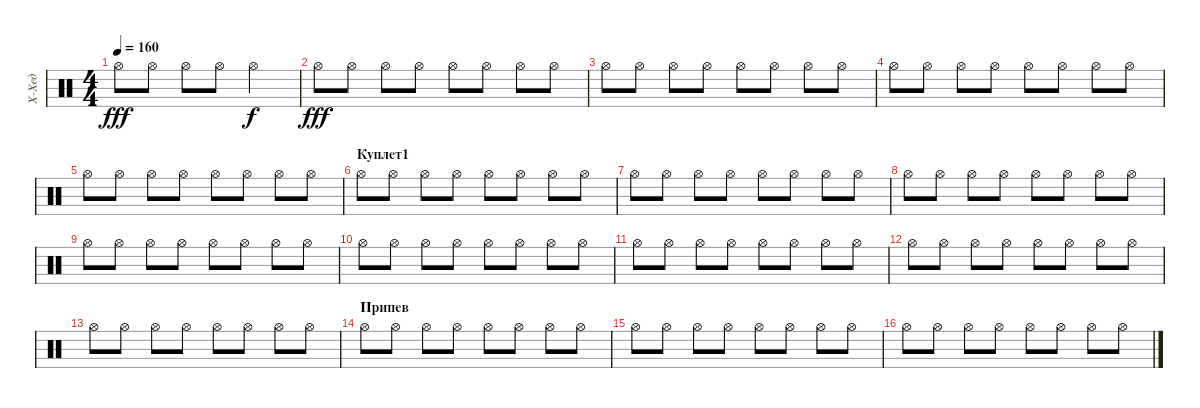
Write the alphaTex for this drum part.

\track ("Х-Хед" "Х-Хед") {instrument percussion}
\staff {score}
\articulation defaults
\ts (4 4)
\tempo 160
\clef neutral
\ks c "Hi-Hat (open)".8{dy fff} "Hi-Hat (open)".8 "Hi-Hat (open)".8 "Hi-Hat (open)".8 "Hi-Hat (open)".2{dy f}
|
"Hi-Hat (open)".8{dy fff} "Hi-Hat (open)".8 "Hi-Hat (open)".8 "Hi-Hat (open)".8 "Hi-Hat (open)".8 "Hi-Hat (open)".8 "Hi-Hat (open)".8 "Hi-Hat (open)".8 |
"Hi-Hat (open)".8 "Hi-Hat (open)".8 "Hi-Hat (open)".8 "Hi-Hat (open)".8 "Hi-Hat (open)".8 "Hi-Hat (open)".8 "Hi-Hat (open)".8 "Hi-Hat (open)".8 |
"Hi-Hat (open)".8 "Hi-Hat (open)".8 "Hi-Hat (open)".8 "Hi-Hat (open)".8 "Hi-Hat (open)".8 "Hi-Hat (open)".8 "Hi-Hat (open)".8 "Hi-Hat (open)".8 |
"Hi-Hat (open)".8 "Hi-Hat (open)".8 "Hi-Hat (open)".8 "Hi-Hat (open)".8 "Hi-Hat (open)".8 "Hi-Hat (open)".8 "Hi-Hat (open)".8 "Hi-Hat (open)".8 |
\section ("" "Куплет1")
"Hi-Hat (open)".8 "Hi-Hat (open)".8 "Hi-Hat (open)".8 "Hi-Hat (open)".8 "Hi-Hat (open)".8 "Hi-Hat (open)".8 "Hi-Hat (open)".8 "Hi-Hat (open)".8 |
"Hi-Hat (open)".8 "Hi-Hat (open)".8 "Hi-Hat (open)".8 "Hi-Hat (open)".8 "Hi-Hat (open)".8 "Hi-Hat (open)".8 "Hi-Hat (open)".8 "Hi-Hat (open)".8 |
"Hi-Hat (open)".8 "Hi-Hat (open)".8 "Hi-Hat (open)".8 "Hi-Hat (open)".8 "Hi-Hat (open)".8 "Hi-Hat (open)".8 "Hi-Hat (open)".8 "Hi-Hat (open)".8 |
"Hi-Hat (open)".8 "Hi-Hat (open)".8 "Hi-Hat (open)".8 "Hi-Hat (open)".8 "Hi-Hat (open)".8 "Hi-Hat (open)".8 "Hi-Hat (open)".8 "Hi-Hat (open)".8 |
"Hi-Hat (open)".8 "Hi-Hat (open)".8 "Hi-Hat (open)".8 "Hi-Hat (open)".8 "Hi-Hat (open)".8 "Hi-Hat (open)".8 "Hi-Hat (open)".8 "Hi-Hat (open)".8 |
"Hi-Hat (open)".8 "Hi-Hat (open)".8 "Hi-Hat (open)".8 "Hi-Hat (open)".8 "Hi-Hat (open)".8 "Hi-Hat (open)".8 "Hi-Hat (open)".8 "Hi-Hat (open)".8 |
"Hi-Hat (open)".8 "Hi-Hat (open)".8 "Hi-Hat (open)".8 "Hi-Hat (open)".8 "Hi-Hat (open)".8 "Hi-Hat (open)".8 "Hi-Hat (open)".8 "Hi-Hat (open)".8 |
"Hi-Hat (open)".8 "Hi-Hat (open)".8 "Hi-Hat (open)".8 "Hi-Hat (open)".8 "Hi-Hat (open)".8 "Hi-Hat (open)".8 "Hi-Hat (open)".8 "Hi-Hat (open)".8 |
\section ("" "Припев")
"Hi-Hat (open)".8 "Hi-Hat (open)".8 "Hi-Hat (open)".8 "Hi-Hat (open)".8 "Hi-Hat (open)".8 "Hi-Hat (open)".8 "Hi-Hat (open)".8 "Hi-Hat (open)".8 |
"Hi-Hat (open)".8 "Hi-Hat (open)".8 "Hi-Hat (open)".8 "Hi-Hat (open)".8 "Hi-Hat (open)".8 "Hi-Hat (open)".8 "Hi-Hat (open)".8 "Hi-Hat (open)".8 |
"Hi-Hat (open)".8 "Hi-Hat (open)".8 "Hi-Hat (open)".8 "Hi-Hat (open)".8 "Hi-Hat (open)".8 "Hi-Hat (open)".8 "Hi-Hat (open)".8 "Hi-Hat (open)".8
